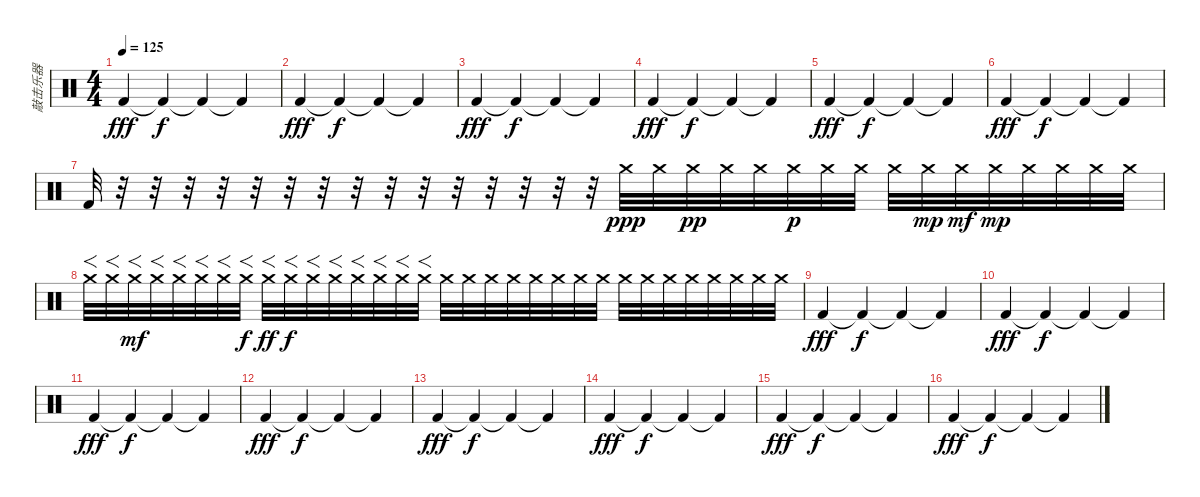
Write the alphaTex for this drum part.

\track ("敲击乐器" "敲击乐器") {instrument percussion}
\staff {score}
\articulation defaults
\ts (4 4)
\tempo 125
\clef neutral
\ks c "Kick (hit) 2".4{dy fff} "Kick (hit) 2"{t}.4{dy f} "Kick (hit) 2"{t}.4 "Kick (hit) 2"{t}.4
|
"Kick (hit) 2".4{dy fff} "Kick (hit) 2"{t}.4{dy f} "Kick (hit) 2"{t}.4 "Kick (hit) 2"{t}.4 |
"Kick (hit) 2".4{dy fff} "Kick (hit) 2"{t}.4{dy f} "Kick (hit) 2"{t}.4 "Kick (hit) 2"{t}.4 |
"Kick (hit) 2".4{dy fff} "Kick (hit) 2"{t}.4{dy f} "Kick (hit) 2"{t}.4 "Kick (hit) 2"{t}.4 |
"Kick (hit) 2".4{dy fff} "Kick (hit) 2"{t}.4{dy f} "Kick (hit) 2"{t}.4 "Kick (hit) 2"{t}.4 |
"Kick (hit) 2".4{dy fff} "Kick (hit) 2"{t}.4{dy f} "Kick (hit) 2"{t}.4 "Kick (hit) 2"{t}.4 |
"Kick (hit) 2".32 r.32 r.32 r.32 r.32 r.32 r.32 r.32 r.32 r.32 r.32 r.32 r.32 r.32 r.32 r.32 "Crash medium (hit)".32{dy ppp} "Crash medium (hit)".32 "Crash medium (hit)".32{dy pp} "Crash medium (hit)".32 "Crash medium (hit)".32 "Crash medium (hit)".32{dy p} "Crash medium (hit)".32 "Crash medium (hit)".32 "Crash medium (hit)".32 "Crash medium (hit)".32{dy mp} "Crash medium (hit)".32{dy mf} "Crash medium (hit)".32{dy mp} "Crash medium (hit)".32 "Crash medium (hit)".32 "Crash medium (hit)".32 "Crash medium (hit)".32 |
"Crash medium (hit)".32{f} "Crash medium (hit)".32{f} "Crash medium (hit)".32{f dy mf} "Crash medium (hit)".32{f} "Crash medium (hit)".32{f} "Crash medium (hit)".32{f} "Crash medium (hit)".32{f} "Crash medium (hit)".32{f dy f} "Crash medium (hit)".32{f dy ff} "Crash medium (hit)".32{f dy f} "Crash medium (hit)".32{f} "Crash medium (hit)".32{f} "Crash medium (hit)".32{f} "Crash medium (hit)".32{f} "Crash medium (hit)".32{f} "Crash medium (hit)".32{f} "Crash medium (hit)".32 "Crash medium (hit)".32 "Crash medium (hit)".32 "Crash medium (hit)".32 "Crash medium (hit)".32 "Crash medium (hit)".32 "Crash medium (hit)".32 "Crash medium (hit)".32 "Crash medium (hit)".32 "Crash medium (hit)".32 "Crash medium (hit)".32 "Crash medium (hit)".32 "Crash medium (hit)".32 "Crash medium (hit)".32 "Crash medium (hit)".32 "Crash medium (hit)".32 |
"Kick (hit) 2".4{dy fff} "Kick (hit) 2"{t}.4{dy f} "Kick (hit) 2"{t}.4 "Kick (hit) 2"{t}.4 |
"Kick (hit) 2".4{dy fff} "Kick (hit) 2"{t}.4{dy f} "Kick (hit) 2"{t}.4 "Kick (hit) 2"{t}.4 |
"Kick (hit) 2".4{dy fff} "Kick (hit) 2"{t}.4{dy f} "Kick (hit) 2"{t}.4 "Kick (hit) 2"{t}.4 |
"Kick (hit) 2".4{dy fff} "Kick (hit) 2"{t}.4{dy f} "Kick (hit) 2"{t}.4 "Kick (hit) 2"{t}.4 |
"Kick (hit) 2".4{dy fff} "Kick (hit) 2"{t}.4{dy f} "Kick (hit) 2"{t}.4 "Kick (hit) 2"{t}.4 |
"Kick (hit) 2".4{dy fff} "Kick (hit) 2"{t}.4{dy f} "Kick (hit) 2"{t}.4 "Kick (hit) 2"{t}.4 |
"Kick (hit) 2".4{dy fff} "Kick (hit) 2"{t}.4{dy f} "Kick (hit) 2"{t}.4 "Kick (hit) 2"{t}.4 |
"Kick (hit) 2".4{dy fff} "Kick (hit) 2"{t}.4{dy f} "Kick (hit) 2"{t}.4 "Kick (hit) 2"{t}.4
